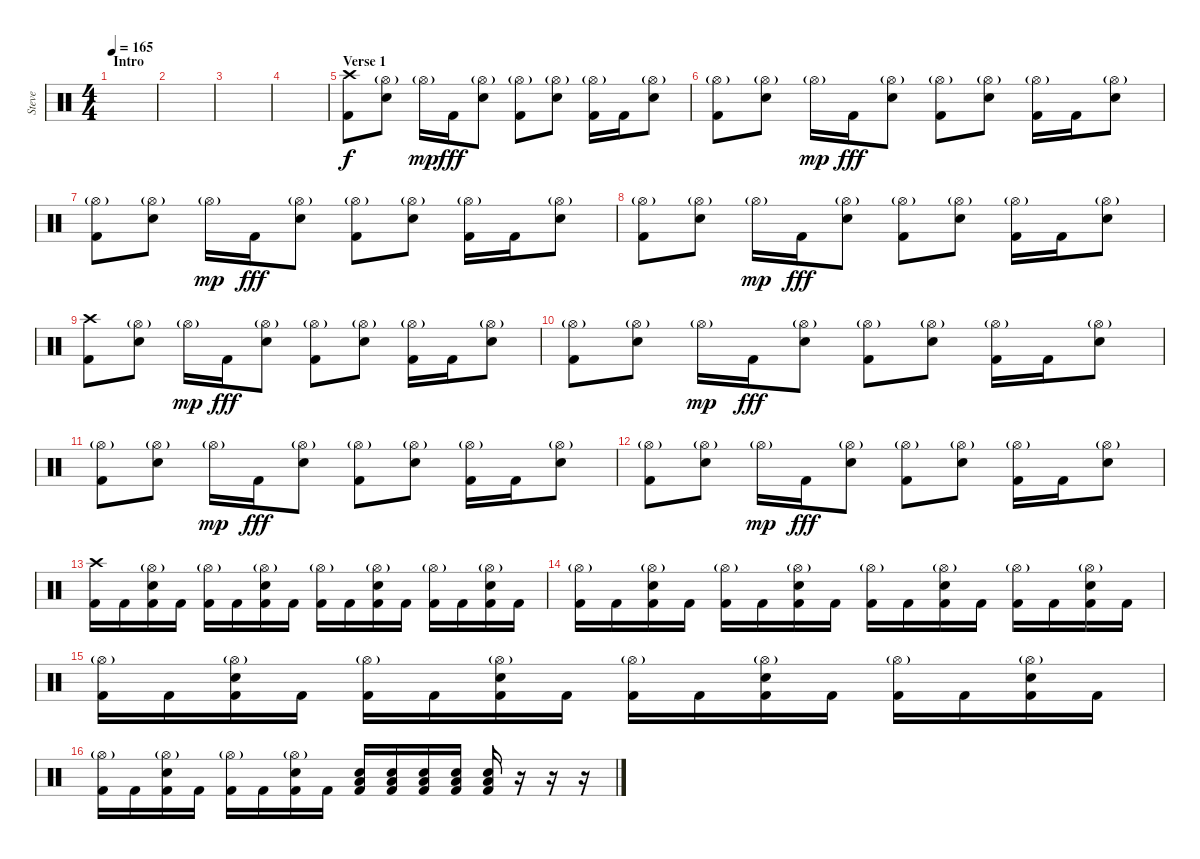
\track ("Steve" "Steve") {instrument percussion}
\staff {score}
\articulation defaults
\ts (4 4)
\section ("" "Intro")
\tempo 165
\clef neutral
\ks c
|
|
|
|
\section ("" "Verse 1")
("Crash high (hit)" "Kick (hit) 2").8 ("Hi-Hat (open)"{g} "Electric Snare (hit)").8 "Hi-Hat (open)"{g}.16{dy mp} "Kick (hit) 2".16{dy fff} ("Hi-Hat (open)"{g} "Electric Snare (hit)").8 ("Hi-Hat (open)"{g} "Kick (hit) 2").8 ("Hi-Hat (open)"{g} "Electric Snare (hit)").8 ("Hi-Hat (open)"{g} "Kick (hit) 2").16 "Kick (hit) 2".16 ("Hi-Hat (open)"{g} "Electric Snare (hit)").8 |
("Hi-Hat (open)"{g} "Kick (hit) 2").8 ("Hi-Hat (open)"{g} "Electric Snare (hit)").8 "Hi-Hat (open)"{g}.16{dy mp} "Kick (hit) 2".16{dy fff} ("Hi-Hat (open)"{g} "Electric Snare (hit)").8 ("Hi-Hat (open)"{g} "Kick (hit) 2").8 ("Hi-Hat (open)"{g} "Electric Snare (hit)").8 ("Hi-Hat (open)"{g} "Kick (hit) 2").16 "Kick (hit) 2".16 ("Hi-Hat (open)"{g} "Electric Snare (hit)").8 |
("Hi-Hat (open)"{g} "Kick (hit) 2").8 ("Hi-Hat (open)"{g} "Electric Snare (hit)").8 "Hi-Hat (open)"{g}.16{dy mp} "Kick (hit) 2".16{dy fff} ("Hi-Hat (open)"{g} "Electric Snare (hit)").8 ("Hi-Hat (open)"{g} "Kick (hit) 2").8 ("Hi-Hat (open)"{g} "Electric Snare (hit)").8 ("Hi-Hat (open)"{g} "Kick (hit) 2").16 "Kick (hit) 2".16 ("Hi-Hat (open)"{g} "Electric Snare (hit)").8 |
("Hi-Hat (open)"{g} "Kick (hit) 2").8 ("Hi-Hat (open)"{g} "Electric Snare (hit)").8 "Hi-Hat (open)"{g}.16{dy mp} "Kick (hit) 2".16{dy fff} ("Hi-Hat (open)"{g} "Electric Snare (hit)").8 ("Hi-Hat (open)"{g} "Kick (hit) 2").8 ("Hi-Hat (open)"{g} "Electric Snare (hit)").8 ("Hi-Hat (open)"{g} "Kick (hit) 2").16 "Kick (hit) 2".16 ("Hi-Hat (open)"{g} "Electric Snare (hit)").8 |
("Crash high (hit)" "Kick (hit) 2").8 ("Hi-Hat (open)"{g} "Electric Snare (hit)").8 "Hi-Hat (open)"{g}.16{dy mp} "Kick (hit) 2".16{dy fff} ("Hi-Hat (open)"{g} "Electric Snare (hit)").8 ("Hi-Hat (open)"{g} "Kick (hit) 2").8 ("Hi-Hat (open)"{g} "Electric Snare (hit)").8 ("Hi-Hat (open)"{g} "Kick (hit) 2").16 "Kick (hit) 2".16 ("Hi-Hat (open)"{g} "Electric Snare (hit)").8 |
("Hi-Hat (open)"{g} "Kick (hit) 2").8 ("Hi-Hat (open)"{g} "Electric Snare (hit)").8 "Hi-Hat (open)"{g}.16{dy mp} "Kick (hit) 2".16{dy fff} ("Hi-Hat (open)"{g} "Electric Snare (hit)").8 ("Hi-Hat (open)"{g} "Kick (hit) 2").8 ("Hi-Hat (open)"{g} "Electric Snare (hit)").8 ("Hi-Hat (open)"{g} "Kick (hit) 2").16 "Kick (hit) 2".16 ("Hi-Hat (open)"{g} "Electric Snare (hit)").8 |
("Hi-Hat (open)"{g} "Kick (hit) 2").8 ("Hi-Hat (open)"{g} "Electric Snare (hit)").8 "Hi-Hat (open)"{g}.16{dy mp} "Kick (hit) 2".16{dy fff} ("Hi-Hat (open)"{g} "Electric Snare (hit)").8 ("Hi-Hat (open)"{g} "Kick (hit) 2").8 ("Hi-Hat (open)"{g} "Electric Snare (hit)").8 ("Hi-Hat (open)"{g} "Kick (hit) 2").16 "Kick (hit) 2".16 ("Hi-Hat (open)"{g} "Electric Snare (hit)").8 |
("Hi-Hat (open)"{g} "Kick (hit) 2").8 ("Hi-Hat (open)"{g} "Electric Snare (hit)").8 "Hi-Hat (open)"{g}.16{dy mp} "Kick (hit) 2".16{dy fff} ("Hi-Hat (open)"{g} "Electric Snare (hit)").8 ("Hi-Hat (open)"{g} "Kick (hit) 2").8 ("Hi-Hat (open)"{g} "Electric Snare (hit)").8 ("Hi-Hat (open)"{g} "Kick (hit) 2").16 "Kick (hit) 2".16 ("Hi-Hat (open)"{g} "Electric Snare (hit)").8 |
("Crash high (hit)" "Kick (hit) 2").16 "Kick (hit) 2".16 ("Hi-Hat (open)"{g} "Electric Snare (hit)" "Kick (hit) 2").16 "Kick (hit) 2".16 ("Hi-Hat (open)"{g} "Kick (hit) 2").16 "Kick (hit) 2".16 ("Hi-Hat (open)"{g} "Electric Snare (hit)" "Kick (hit) 2").16 "Kick (hit) 2".16 ("Hi-Hat (open)"{g} "Kick (hit) 2").16 "Kick (hit) 2".16 ("Hi-Hat (open)"{g} "Electric Snare (hit)" "Kick (hit) 2").16 "Kick (hit) 2".16 ("Hi-Hat (open)"{g} "Kick (hit) 2").16 "Kick (hit) 2".16 ("Hi-Hat (open)"{g} "Electric Snare (hit)" "Kick (hit) 2").16 "Kick (hit) 2".16 |
("Hi-Hat (open)"{g} "Kick (hit) 2").16 "Kick (hit) 2".16 ("Hi-Hat (open)"{g} "Electric Snare (hit)" "Kick (hit) 2").16 "Kick (hit) 2".16 ("Hi-Hat (open)"{g} "Kick (hit) 2").16 "Kick (hit) 2".16 ("Hi-Hat (open)"{g} "Electric Snare (hit)" "Kick (hit) 2").16 "Kick (hit) 2".16 ("Hi-Hat (open)"{g} "Kick (hit) 2").16 "Kick (hit) 2".16 ("Hi-Hat (open)"{g} "Electric Snare (hit)" "Kick (hit) 2").16 "Kick (hit) 2".16 ("Hi-Hat (open)"{g} "Kick (hit) 2").16 "Kick (hit) 2".16 ("Hi-Hat (open)"{g} "Electric Snare (hit)" "Kick (hit) 2").16 "Kick (hit) 2".16 |
("Hi-Hat (open)"{g} "Kick (hit) 2").16 "Kick (hit) 2".16 ("Hi-Hat (open)"{g} "Electric Snare (hit)" "Kick (hit) 2").16 "Kick (hit) 2".16 ("Hi-Hat (open)"{g} "Kick (hit) 2").16 "Kick (hit) 2".16 ("Hi-Hat (open)"{g} "Electric Snare (hit)" "Kick (hit) 2").16 "Kick (hit) 2".16 ("Hi-Hat (open)"{g} "Kick (hit) 2").16 "Kick (hit) 2".16 ("Hi-Hat (open)"{g} "Electric Snare (hit)" "Kick (hit) 2").16 "Kick (hit) 2".16 ("Hi-Hat (open)"{g} "Kick (hit) 2").16 "Kick (hit) 2".16 ("Hi-Hat (open)"{g} "Electric Snare (hit)" "Kick (hit) 2").16 "Kick (hit) 2".16 |
("Hi-Hat (open)"{g} "Kick (hit) 2").16 "Kick (hit) 2".16 ("Hi-Hat (open)"{g} "Electric Snare (hit)" "Kick (hit) 2").16 "Kick (hit) 2".16 ("Hi-Hat (open)"{g} "Kick (hit) 2").16 "Kick (hit) 2".16 ("Hi-Hat (open)"{g} "Electric Snare (hit)" "Kick (hit) 2").16 "Kick (hit) 2".16 ("Electric Snare (hit)" "Low Floor Tom (hit)" "Kick (hit) 2").16 ("Electric Snare (hit)" "Low Floor Tom (hit)" "Kick (hit) 2").16 ("Electric Snare (hit)" "Low Floor Tom (hit)" "Kick (hit) 2").16 ("Electric Snare (hit)" "Low Floor Tom (hit)" "Kick (hit) 2").16 ("Electric Snare (hit)" "Low Floor Tom (hit)" "Kick (hit) 2").16 r.16 r.16 r.16
